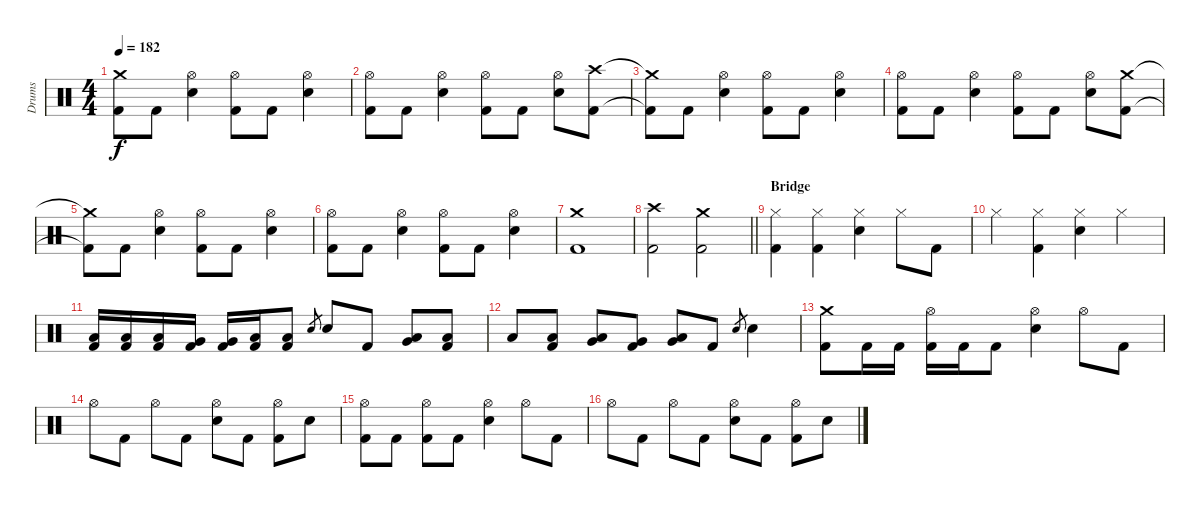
\track ("Drums" "Drums") {instrument percussion}
\staff {score}
\articulation defaults
\ts (4 4)
\tempo 182
\clef neutral
\ks c
("Crash medium (hit)"{t} "Kick (hit) 2"{t}).8{dy f} "Kick (hit) 2".8 ("Hi-Hat (open)" "Electric Snare (hit)").4 ("Hi-Hat (open)" "Kick (hit) 2").8 "Kick (hit) 2".8 ("Hi-Hat (open)" "Electric Snare (hit)").4 |
("Hi-Hat (open)" "Kick (hit) 2").8 "Kick (hit) 2".8 ("Hi-Hat (open)" "Electric Snare (hit)").4 ("Hi-Hat (open)" "Kick (hit) 2").8 "Kick (hit) 2".8 ("Hi-Hat (open)" "Electric Snare (hit)").8 ("Crash high (hit)" "Kick (hit) 2").8 |
("Crash medium (hit)"{t} "Kick (hit) 2"{t}).8 "Kick (hit) 2".8 ("Hi-Hat (open)" "Electric Snare (hit)").4 ("Hi-Hat (open)" "Kick (hit) 2").8 "Kick (hit) 2".8 ("Hi-Hat (open)" "Electric Snare (hit)").4 |
("Hi-Hat (open)" "Kick (hit) 2").8 "Kick (hit) 2".8 ("Hi-Hat (open)" "Electric Snare (hit)").4 ("Hi-Hat (open)" "Kick (hit) 2").8 "Kick (hit) 2".8 ("Hi-Hat (open)" "Electric Snare (hit)").8 ("Crash medium (hit)" "Kick (hit) 2").8 |
("Crash medium (hit)"{t} "Kick (hit) 2"{t}).8 "Kick (hit) 2".8 ("Hi-Hat (open)" "Electric Snare (hit)").4 ("Hi-Hat (open)" "Kick (hit) 2").8 "Kick (hit) 2".8 ("Hi-Hat (open)" "Electric Snare (hit)").4 |
("Hi-Hat (open)" "Kick (hit) 2").8 "Kick (hit) 2".8 ("Hi-Hat (open)" "Electric Snare (hit)").4 ("Hi-Hat (open)" "Kick (hit) 2").8 "Kick (hit) 2".8 ("Hi-Hat (open)" "Electric Snare (hit)").4 |
("Crash medium (hit)" "Kick (hit) 2").1 |
\barLineRight lightlight
("Crash high (hit)" "Kick (hit) 2").2 ("Crash medium (hit)" "Kick (hit) 2").2 |
\section ("" "Bridge")
("Hi-Hat (closed)" "Kick (hit) 2").4{volume 8} ("Hi-Hat (closed)" "Kick (hit) 2").4 ("Hi-Hat (closed)" "Electric Snare (hit)").4 "Hi-Hat (closed)".8 "Kick (hit) 2".8 |
"Hi-Hat (closed)".4 ("Hi-Hat (closed)" "Kick (hit) 2").4 ("Hi-Hat (closed)" "Electric Snare (hit)").4 "Hi-Hat (closed)".4 |
("Low Tom (hit)" "Kick (hit) 2").16{volume 12} ("Low Tom (hit)" "Kick (hit) 2").16 ("Low Tom (hit)" "Kick (hit) 2").16 ("Very Low Tom (hit)" "Kick (hit) 2").16 ("Very Low Tom (hit)" "Kick (hit) 2").16 ("Low Floor Tom (hit)" "Kick (hit) 2").16 ("Low Floor Tom (hit)" "Kick (hit) 2").8 "Electric Snare (hit)".8{gr} "Electric Snare (hit)".8 "Kick (hit) 2".8 ("Low Tom (hit)" "Very Low Tom (hit)").8 ("Low Tom (hit)" "Kick (hit) 2").8 |
"Low Floor Tom (hit)".8 ("Low Tom (hit)" "Kick (hit) 2").8 ("Low Tom (hit)" "Very Low Tom (hit)").8 ("Very Low Tom (hit)" "Kick (hit) 2").8 ("Very Low Tom (hit)" "Low Floor Tom (hit)").8 "Kick (hit) 2".8 "Electric Snare (hit)".8{gr} "Electric Snare (hit)".4 |
("Crash medium (hit)" "Kick (hit) 2").8 "Kick (hit) 2".16 "Kick (hit) 2".16 ("Hi-Hat (open)" "Kick (hit) 2").16 "Kick (hit) 2".16 "Kick (hit) 2".8 ("Hi-Hat (open)" "Electric Snare (hit)").4 "Hi-Hat (open)".8 "Kick (hit) 2".8 |
"Hi-Hat (open)".8 "Kick (hit) 2".8 "Hi-Hat (open)".8 "Kick (hit) 2".8 ("Hi-Hat (open)" "Electric Snare (hit)").8 "Kick (hit) 2".8 ("Hi-Hat (open)" "Kick (hit) 2").8 "Electric Snare (hit)".8 |
("Hi-Hat (open)" "Kick (hit) 2").8 "Kick (hit) 2".8 ("Hi-Hat (open)" "Kick (hit) 2").8 "Kick (hit) 2".8 ("Hi-Hat (open)" "Electric Snare (hit)").4 "Hi-Hat (open)".8 "Kick (hit) 2".8 |
"Hi-Hat (open)".8 "Kick (hit) 2".8 "Hi-Hat (open)".8 "Kick (hit) 2".8 ("Hi-Hat (open)" "Electric Snare (hit)").8 "Kick (hit) 2".8 ("Hi-Hat (open)" "Kick (hit) 2").8 "Electric Snare (hit)".8
